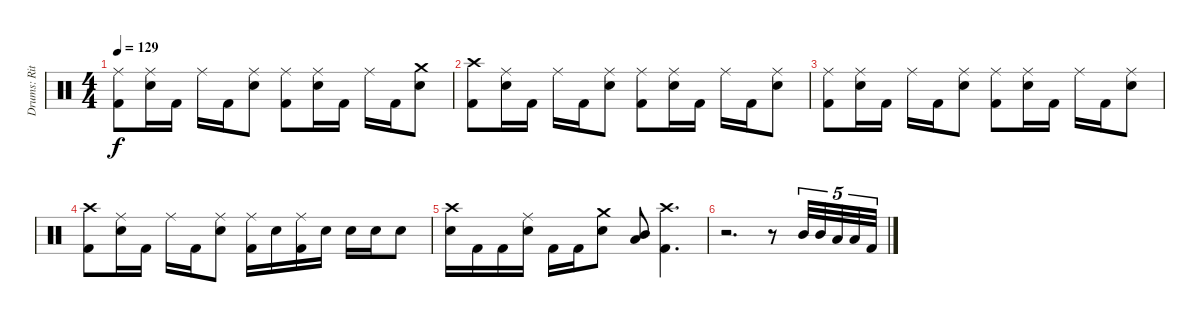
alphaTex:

\track ("Drums: Ritsu Tainaka" "Drums: Rit") {instrument percussion}
\staff {score}
\articulation defaults
\ts (4 4)
\tempo 129
\clef neutral
\ks c
("Ride (middle)" "Kick (hit) 2").8{dy f} ("Ride (middle)" "Electric Snare (hit)").16 "Kick (hit) 2".16 "Ride (middle)".16 "Kick (hit) 2".16 ("Ride (middle)" "Electric Snare (hit)").8 ("Ride (middle)" "Kick (hit) 2").8 ("Ride (middle)" "Electric Snare (hit)").16 "Kick (hit) 2".16 "Ride (middle)".16 "Kick (hit) 2".16 ("Crash medium (hit)" "Electric Snare (hit)").8 |
("Crash high (hit)" "Kick (hit) 2").8 ("Ride (middle)" "Electric Snare (hit)").16 "Kick (hit) 2".16 "Ride (middle)".16 "Kick (hit) 2".16 ("Ride (middle)" "Electric Snare (hit)").8 ("Ride (middle)" "Kick (hit) 2").8 ("Ride (middle)" "Electric Snare (hit)").16 "Kick (hit) 2".16 "Ride (middle)".16 "Kick (hit) 2".16 ("Ride (middle)" "Electric Snare (hit)").8 |
("Ride (middle)" "Kick (hit) 2").8 ("Ride (middle)" "Electric Snare (hit)").16 "Kick (hit) 2".16 "Ride (middle)".16 "Kick (hit) 2".16 ("Ride (middle)" "Electric Snare (hit)").8 ("Ride (middle)" "Kick (hit) 2").8 ("Ride (middle)" "Electric Snare (hit)").16 "Kick (hit) 2".16 "Ride (middle)".16 "Kick (hit) 2".16 ("Ride (middle)" "Electric Snare (hit)").8 |
("Crash high (hit)" "Kick (hit) 2").8 ("Ride (middle)" "Electric Snare (hit)").16 "Kick (hit) 2".16 "Ride (middle)".16 "Kick (hit) 2".16 ("Ride (middle)" "Electric Snare (hit)").8 ("Ride (middle)" "Kick (hit) 2").16 "Electric Snare (hit)".16 ("Ride (middle)" "Kick (hit) 2").16 "Electric Snare (hit)".16 "Electric Snare (hit)".16 "Electric Snare (hit)".16 "Electric Snare (hit)".8 |
("Crash high (hit)" "Electric Snare (hit)").16 "Kick (hit) 2".16 "Kick (hit) 2".16 ("Ride (middle)" "Electric Snare (hit)").16 "Kick (hit) 2".16 "Kick (hit) 2".16 ("Crash medium (hit)" "Electric Snare (hit)").8 ("Mid Tom (hit)" "Low Floor Tom (hit)").8 ("Crash high (hit)" "Kick (hit) 2").4{d} |
r.2{d} r.8 "Mid Tom (hit)".32{tu (5 4)} "Mid Tom (hit)".32{tu (5 4)} "Low Floor Tom (hit)".32{tu (5 4)} "Low Floor Tom (hit)".32{tu (5 4)} "Kick (hit) 2".32{tu (5 4)}
